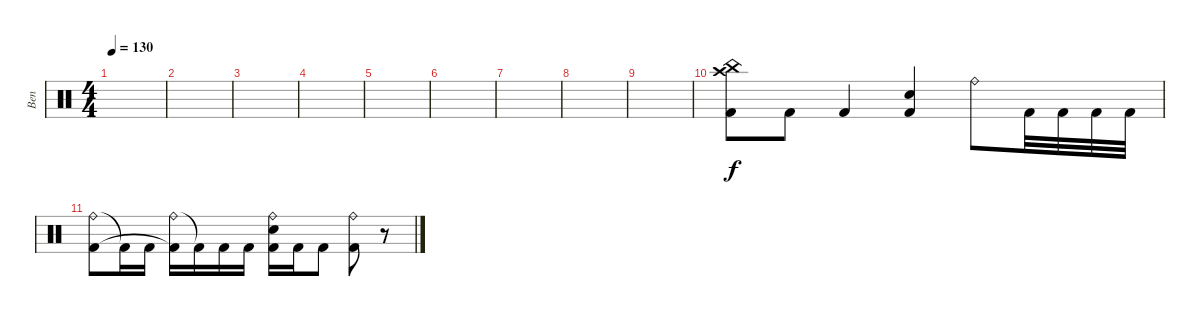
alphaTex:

\track ("Ben" "Ben") {instrument percussion}
\staff {score}
\articulation defaults
\ts (4 4)
\tempo 130
\clef neutral
\ks c
|
|
|
|
|
|
|
|
|
("China (hit)" "Crash high (hit)" "Kick (hit) 2").8 "Kick (hit) 2".8 "Kick (hit) 2".4 ("Snare (hit) 2" "Kick (hit) 2").4 "Ride (bell)".8 "Kick (hit) 2".32 "Kick (hit) 2".32 "Kick (hit) 2".32 "Kick (hit) 2".32 |
("Ride (bell)" "Kick (hit) 2").8 "Kick (hit) 2"{t}.16 "Kick (hit) 2".16 ("Ride (bell)" "Kick (hit) 2"{t}).16 "Kick (hit) 2"{t}.16 "Kick (hit) 2".16 "Kick (hit) 2".16 ("Ride (bell)" "Snare (hit) 2" "Kick (hit) 2").16 "Kick (hit) 2".16 "Kick (hit) 2".8 ("Ride (bell)" "Kick (hit) 2").8 r.8
